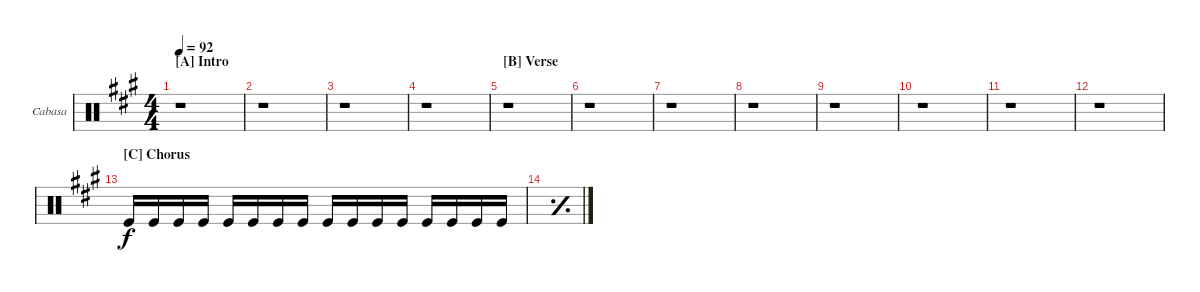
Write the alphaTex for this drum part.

\defaultSystemsLayout 4
\bracketExtendMode groupsimilarinstruments
\firstSystemTrackNameOrientation horizontal
\otherSystemsTrackNameOrientation horizontal
\track ("Cabasa" "Cabasa") {instrument percussion}
\staff {score}
\articulation defaults
\ts (4 4)
\section ("A" "Intro")
\tempo 92
\clef neutral
\ks a
r.1{dy f} |
r.1 |
r.1 |
r.1 |
\section ("B" "Verse")
r.1 |
r.1 |
r.1 |
r.1 |
r.1 |
r.1 |
r.1 |
r.1 |
\section ("C" "Chorus")
"Kick (hit)".16 "Kick (hit)".16 "Kick (hit)".16 "Kick (hit)".16 "Kick (hit)".16 "Kick (hit)".16 "Kick (hit)".16 "Kick (hit)".16 "Kick (hit)".16 "Kick (hit)".16 "Kick (hit)".16 "Kick (hit)".16 "Kick (hit)".16 "Kick (hit)".16 "Kick (hit)".16 "Kick (hit)".16 |
\simile simple
